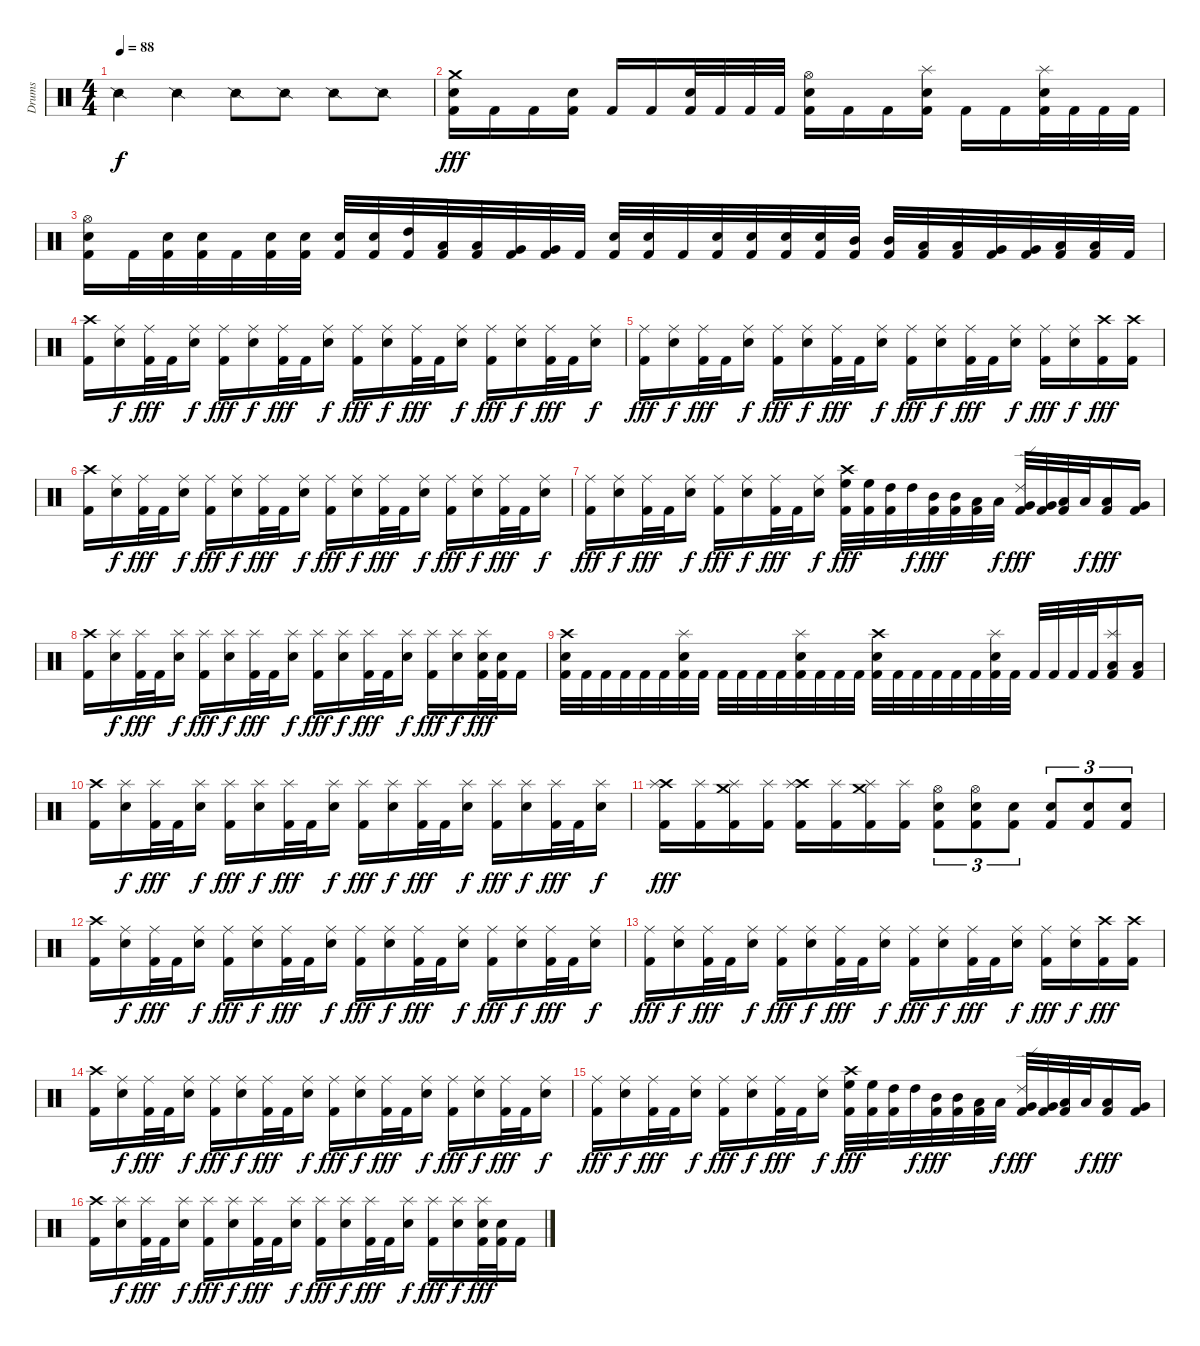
\track ("Drums" "Drums") {instrument percussion}
\staff {score}
\articulation defaults
\ts (4 4)
\tempo 88
\clef neutral
\ks c "Snare (side stick) 2".4{dy f} "Snare (side stick) 2".4 "Snare (side stick) 2".8 "Snare (side stick) 2".8 "Snare (side stick) 2".8 "Snare (side stick) 2".8
|
("Crash medium (hit)" "Snare (hit) 2" "Kick (hit) 2").16{dy fff} "Kick (hit) 2".16 "Kick (hit) 2".16 ("Snare (hit) 2" "Kick (hit) 2").16 "Kick (hit) 2".16 "Kick (hit) 2".16 ("Snare (hit) 2" "Kick (hit) 2").32 "Kick (hit) 2".32 "Kick (hit) 2".32 "Kick (hit) 2".32 ("Hi-Hat (open)" "Snare (hit) 2" "Kick (hit) 2").16 "Kick (hit) 2".16 "Kick (hit) 2".16 ("Splash (hit)" "Snare (hit) 2" "Kick (hit) 2").16 "Kick (hit) 2".16 "Kick (hit) 2".16 ("Splash (hit)" "Snare (hit) 2" "Kick (hit) 2").32 "Kick (hit) 2".32 "Kick (hit) 2".32 "Kick (hit) 2".32 |
("Hi-Hat (open)" "Snare (hit) 2" "Kick (hit) 2").16 "Kick (hit) 2".32 ("Snare (hit) 2" "Kick (hit) 2").32 ("Snare (hit) 2" "Kick (hit) 2").32 "Kick (hit) 2".32 ("Snare (hit) 2" "Kick (hit) 2").32 ("Snare (hit) 2" "Kick (hit) 2").32 ("Snare (hit) 2" "Kick (hit) 2").32 ("Snare (hit) 2" "Kick (hit) 2").32 ("High Tom (hit)" "Kick (hit) 2").32 ("Low Tom (hit)" "Kick (hit) 2").32 ("Low Tom (hit)" "Kick (hit) 2").32 ("Very Low Tom (hit)" "Kick (hit) 2").32 ("Very Low Tom (hit)" "Kick (hit) 2").32 "Kick (hit) 2".32 ("Snare (hit) 2" "Kick (hit) 2").32 ("Snare (hit) 2" "Kick (hit) 2").32 "Kick (hit) 2".32 ("Snare (hit) 2" "Kick (hit) 2").32 ("Snare (hit) 2" "Kick (hit) 2").32 ("Snare (hit) 2" "Kick (hit) 2").32 ("Snare (hit) 2" "Kick (hit) 2").32 ("Mid Tom (hit)" "Kick (hit) 2").32 ("Mid Tom (hit)" "Kick (hit) 2").32 ("Low Tom (hit)" "Kick (hit) 2").32 ("Low Tom (hit)" "Kick (hit) 2").32 ("Very Low Tom (hit)" "Kick (hit) 2").32 ("Very Low Tom (hit)" "Kick (hit) 2").32 ("Low Floor Tom (hit)" "Kick (hit) 2").32 ("Low Floor Tom (hit)" "Kick (hit) 2").32 "Kick (hit) 2".32 |
("Crash high (hit)" "Kick (hit) 2").16 ("Ride (middle)" "Snare (hit) 2").16{dy f} ("Ride (middle)" "Kick (hit) 2").32{dy fff} "Kick (hit) 2".32 ("Ride (middle)" "Snare (hit) 2").16{dy f} ("Ride (middle)" "Kick (hit) 2").16{dy fff} ("Ride (middle)" "Snare (hit) 2").16{dy f} ("Ride (middle)" "Kick (hit) 2").32{dy fff} "Kick (hit) 2".32 ("Ride (middle)" "Snare (hit) 2").16{dy f} ("Ride (middle)" "Kick (hit) 2").16{dy fff} ("Ride (middle)" "Snare (hit) 2").16{dy f} ("Ride (middle)" "Kick (hit) 2").32{dy fff} "Kick (hit) 2".32 ("Ride (middle)" "Snare (hit) 2").16{dy f} ("Ride (middle)" "Kick (hit) 2").16{dy fff} ("Ride (middle)" "Snare (hit) 2").16{dy f} ("Ride (middle)" "Kick (hit) 2").32{dy fff} "Kick (hit) 2".32 ("Ride (middle)" "Snare (hit) 2").16{dy f} |
("Ride (middle)" "Kick (hit) 2").16{dy fff} ("Ride (middle)" "Snare (hit) 2").16{dy f} ("Ride (middle)" "Kick (hit) 2").32{dy fff} "Kick (hit) 2".32 ("Ride (middle)" "Snare (hit) 2").16{dy f} ("Ride (middle)" "Kick (hit) 2").16{dy fff} ("Ride (middle)" "Snare (hit) 2").16{dy f} ("Ride (middle)" "Kick (hit) 2").32{dy fff} "Kick (hit) 2".32 ("Ride (middle)" "Snare (hit) 2").16{dy f} ("Ride (middle)" "Kick (hit) 2").16{dy fff} ("Ride (middle)" "Snare (hit) 2").16{dy f} ("Ride (middle)" "Kick (hit) 2").32{dy fff} "Kick (hit) 2".32 ("Ride (middle)" "Snare (hit) 2").16{dy f} ("Ride (middle)" "Kick (hit) 2").16{dy fff} ("Ride (middle)" "Snare (hit) 2").16{dy f} ("Crash high (hit)" "Kick (hit) 2").16{dy fff} ("Crash high (hit)" "Kick (hit) 2").16 |
("Crash high (hit)" "Kick (hit) 2").16 ("Ride (middle)" "Snare (hit) 2").16{dy f} ("Ride (middle)" "Kick (hit) 2").32{dy fff} "Kick (hit) 2".32 ("Ride (middle)" "Snare (hit) 2").16{dy f} ("Ride (middle)" "Kick (hit) 2").16{dy fff} ("Ride (middle)" "Snare (hit) 2").16{dy f} ("Ride (middle)" "Kick (hit) 2").32{dy fff} "Kick (hit) 2".32 ("Ride (middle)" "Snare (hit) 2").16{dy f} ("Ride (middle)" "Kick (hit) 2").16{dy fff} ("Ride (middle)" "Snare (hit) 2").16{dy f} ("Ride (middle)" "Kick (hit) 2").32{dy fff} "Kick (hit) 2".32 ("Ride (middle)" "Snare (hit) 2").16{dy f} ("Ride (middle)" "Kick (hit) 2").16{dy fff} ("Ride (middle)" "Snare (hit) 2").16{dy f} ("Ride (middle)" "Kick (hit) 2").32{dy fff} "Kick (hit) 2".32 ("Ride (middle)" "Snare (hit) 2").16{dy f} |
("Ride (middle)" "Kick (hit) 2").16{dy fff} ("Ride (middle)" "Snare (hit) 2").16{dy f} ("Ride (middle)" "Kick (hit) 2").32{dy fff} "Kick (hit) 2".32 ("Ride (middle)" "Snare (hit) 2").16{dy f} ("Ride (middle)" "Kick (hit) 2").16{dy fff} ("Ride (middle)" "Snare (hit) 2").16{dy f} ("Ride (middle)" "Kick (hit) 2").32{dy fff} "Kick (hit) 2".32 ("Ride (middle)" "Snare (hit) 2").16{dy f} ("Crash high (hit)" "High Floor Tom (hit)" "Kick (hit) 2").32{dy fff} ("High Floor Tom (hit)" "Kick (hit) 2").32 ("High Tom (hit)" "Kick (hit) 2").32 "High Tom (hit)".32{dy f} ("Mid Tom (hit)" "Kick (hit) 2").32{dy fff} ("Mid Tom (hit)" "Kick (hit) 2").32 ("Low Tom (hit)" "Kick (hit) 2").32 "Low Tom (hit)".32{dy f} ("Ride (edge) 2" "Very Low Tom (hit)" "Kick (hit) 2").32{dy fff} ("Very Low Tom (hit)" "Kick (hit) 2").32 ("Low Floor Tom (hit)" "Kick (hit) 2").32 "Low Floor Tom (hit)".32{dy f} ("Low Tom (hit)" "Kick (hit) 2").16{dy fff} ("Very Low Tom (hit)" "Kick (hit) 2").16 |
("Crash high (hit)" "Kick (hit) 2").16 ("Splash (hit)" "Snare (hit) 2").16{dy f} ("Splash (hit)" "Kick (hit) 2").32{dy fff} "Kick (hit) 2".32 ("Splash (hit)" "Snare (hit) 2").16{dy f} ("Splash (hit)" "Kick (hit) 2").16{dy fff} ("Splash (hit)" "Snare (hit) 2").16{dy f} ("Splash (hit)" "Kick (hit) 2").32{dy fff} "Kick (hit) 2".32 ("Splash (hit)" "Snare (hit) 2").16{dy f} ("Splash (hit)" "Kick (hit) 2").16{dy fff} ("Splash (hit)" "Snare (hit) 2").16{dy f} ("Splash (hit)" "Kick (hit) 2").32{dy fff} "Kick (hit) 2".32 ("Splash (hit)" "Snare (hit) 2").16{dy f} ("Splash (hit)" "Kick (hit) 2").16{dy fff} ("Splash (hit)" "Snare (hit) 2").16{dy f} ("Splash (hit)" "Snare (hit) 2" "Kick (hit) 2").32{dy fff} ("Snare (hit) 2" "Kick (hit) 2").32 "Kick (hit) 2".16 |
("Crash high (hit)" "Snare (hit) 2" "Kick (hit) 2").32 "Kick (hit) 2".32 "Kick (hit) 2".32 "Kick (hit) 2".32 "Kick (hit) 2".32 "Kick (hit) 2".32 ("Splash (hit)" "Snare (hit) 2" "Kick (hit) 2").32 "Kick (hit) 2".32 "Kick (hit) 2".32 "Kick (hit) 2".32 "Kick (hit) 2".32 "Kick (hit) 2".32 ("Splash (hit)" "Snare (hit) 2" "Kick (hit) 2").32 "Kick (hit) 2".32 "Kick (hit) 2".32 "Kick (hit) 2".32 ("Crash high (hit)" "Snare (hit) 2" "Kick (hit) 2").32 "Kick (hit) 2".32 "Kick (hit) 2".32 "Kick (hit) 2".32 "Kick (hit) 2".32 "Kick (hit) 2".32 ("Splash (hit)" "Snare (hit) 2" "Kick (hit) 2").32 "Kick (hit) 2".32 "Kick (hit) 2".32 "Kick (hit) 2".32 "Kick (hit) 2".32 "Kick (hit) 2".32 ("Splash (hit)" "Low Tom (hit)" "Kick (hit) 2").16 ("Low Tom (hit)" "Kick (hit) 2").16 |
("Crash high (hit)" "Kick (hit) 2").16 ("Splash (hit)" "Snare (hit) 2").16{dy f} ("Splash (hit)" "Kick (hit) 2").32{dy fff} "Kick (hit) 2".32 ("Splash (hit)" "Snare (hit) 2").16{dy f} ("Splash (hit)" "Kick (hit) 2").16{dy fff} ("Splash (hit)" "Snare (hit) 2").16{dy f} ("Splash (hit)" "Kick (hit) 2").32{dy fff} "Kick (hit) 2".32 ("Splash (hit)" "Snare (hit) 2").16{dy f} ("Splash (hit)" "Kick (hit) 2").16{dy fff} ("Splash (hit)" "Snare (hit) 2").16{dy f} ("Splash (hit)" "Kick (hit) 2").32{dy fff} "Kick (hit) 2".32 ("Splash (hit)" "Snare (hit) 2").16{dy f} ("Splash (hit)" "Kick (hit) 2").16{dy fff} ("Splash (hit)" "Snare (hit) 2").16{dy f} ("Splash (hit)" "Kick (hit) 2").32{dy fff} "Kick (hit) 2".32 ("Splash (hit)" "Snare (hit) 2").16{dy f} |
("Crash high (hit)" "Splash (hit)" "Kick (hit) 2").16{dy fff} ("Splash (hit)" "Kick (hit) 2").16 ("Crash medium (hit)" "Splash (hit)" "Kick (hit) 2").16 ("Splash (hit)" "Kick (hit) 2").16 ("Crash high (hit)" "Splash (hit)" "Kick (hit) 2").16 ("Splash (hit)" "Kick (hit) 2").16 ("Crash medium (hit)" "Splash (hit)" "Kick (hit) 2").16 ("Splash (hit)" "Kick (hit) 2").16 ("Hi-Hat (open)" "Snare (hit) 2" "Kick (hit) 2").8{tu (3 2)} ("Hi-Hat (open)" "Snare (hit) 2" "Kick (hit) 2").8{tu (3 2)} ("Snare (hit) 2" "Kick (hit) 2").8{tu (3 2)} ("Snare (hit) 2" "Kick (hit) 2").8{tu (3 2)} ("Snare (hit) 2" "Kick (hit) 2").8{tu (3 2)} ("Snare (hit) 2" "Kick (hit) 2").8{tu (3 2)} |
("Crash high (hit)" "Kick (hit) 2").16 ("Ride (middle)" "Snare (hit) 2").16{dy f} ("Ride (middle)" "Kick (hit) 2").32{dy fff} "Kick (hit) 2".32 ("Ride (middle)" "Snare (hit) 2").16{dy f} ("Ride (middle)" "Kick (hit) 2").16{dy fff} ("Ride (middle)" "Snare (hit) 2").16{dy f} ("Ride (middle)" "Kick (hit) 2").32{dy fff} "Kick (hit) 2".32 ("Ride (middle)" "Snare (hit) 2").16{dy f} ("Ride (middle)" "Kick (hit) 2").16{dy fff} ("Ride (middle)" "Snare (hit) 2").16{dy f} ("Ride (middle)" "Kick (hit) 2").32{dy fff} "Kick (hit) 2".32 ("Ride (middle)" "Snare (hit) 2").16{dy f} ("Ride (middle)" "Kick (hit) 2").16{dy fff} ("Ride (middle)" "Snare (hit) 2").16{dy f} ("Ride (middle)" "Kick (hit) 2").32{dy fff} "Kick (hit) 2".32 ("Ride (middle)" "Snare (hit) 2").16{dy f} |
("Ride (middle)" "Kick (hit) 2").16{dy fff} ("Ride (middle)" "Snare (hit) 2").16{dy f} ("Ride (middle)" "Kick (hit) 2").32{dy fff} "Kick (hit) 2".32 ("Ride (middle)" "Snare (hit) 2").16{dy f} ("Ride (middle)" "Kick (hit) 2").16{dy fff} ("Ride (middle)" "Snare (hit) 2").16{dy f} ("Ride (middle)" "Kick (hit) 2").32{dy fff} "Kick (hit) 2".32 ("Ride (middle)" "Snare (hit) 2").16{dy f} ("Ride (middle)" "Kick (hit) 2").16{dy fff} ("Ride (middle)" "Snare (hit) 2").16{dy f} ("Ride (middle)" "Kick (hit) 2").32{dy fff} "Kick (hit) 2".32 ("Ride (middle)" "Snare (hit) 2").16{dy f} ("Ride (middle)" "Kick (hit) 2").16{dy fff} ("Ride (middle)" "Snare (hit) 2").16{dy f} ("Crash high (hit)" "Kick (hit) 2").16{dy fff} ("Crash high (hit)" "Kick (hit) 2").16 |
("Crash high (hit)" "Kick (hit) 2").16 ("Ride (middle)" "Snare (hit) 2").16{dy f} ("Ride (middle)" "Kick (hit) 2").32{dy fff} "Kick (hit) 2".32 ("Ride (middle)" "Snare (hit) 2").16{dy f} ("Ride (middle)" "Kick (hit) 2").16{dy fff} ("Ride (middle)" "Snare (hit) 2").16{dy f} ("Ride (middle)" "Kick (hit) 2").32{dy fff} "Kick (hit) 2".32 ("Ride (middle)" "Snare (hit) 2").16{dy f} ("Ride (middle)" "Kick (hit) 2").16{dy fff} ("Ride (middle)" "Snare (hit) 2").16{dy f} ("Ride (middle)" "Kick (hit) 2").32{dy fff} "Kick (hit) 2".32 ("Ride (middle)" "Snare (hit) 2").16{dy f} ("Ride (middle)" "Kick (hit) 2").16{dy fff} ("Ride (middle)" "Snare (hit) 2").16{dy f} ("Ride (middle)" "Kick (hit) 2").32{dy fff} "Kick (hit) 2".32 ("Ride (middle)" "Snare (hit) 2").16{dy f} |
("Ride (middle)" "Kick (hit) 2").16{dy fff} ("Ride (middle)" "Snare (hit) 2").16{dy f} ("Ride (middle)" "Kick (hit) 2").32{dy fff} "Kick (hit) 2".32 ("Ride (middle)" "Snare (hit) 2").16{dy f} ("Ride (middle)" "Kick (hit) 2").16{dy fff} ("Ride (middle)" "Snare (hit) 2").16{dy f} ("Ride (middle)" "Kick (hit) 2").32{dy fff} "Kick (hit) 2".32 ("Ride (middle)" "Snare (hit) 2").16{dy f} ("Crash high (hit)" "High Floor Tom (hit)" "Kick (hit) 2").32{dy fff} ("High Floor Tom (hit)" "Kick (hit) 2").32 ("High Tom (hit)" "Kick (hit) 2").32 "High Tom (hit)".32{dy f} ("Mid Tom (hit)" "Kick (hit) 2").32{dy fff} ("Mid Tom (hit)" "Kick (hit) 2").32 ("Low Tom (hit)" "Kick (hit) 2").32 "Low Tom (hit)".32{dy f} ("Ride (edge) 2" "Very Low Tom (hit)" "Kick (hit) 2").32{dy fff} ("Very Low Tom (hit)" "Kick (hit) 2").32 ("Low Floor Tom (hit)" "Kick (hit) 2").32 "Low Floor Tom (hit)".32{dy f} ("Low Tom (hit)" "Kick (hit) 2").16{dy fff} ("Very Low Tom (hit)" "Kick (hit) 2").16 |
("Crash high (hit)" "Kick (hit) 2").16 ("Splash (hit)" "Snare (hit) 2").16{dy f} ("Splash (hit)" "Kick (hit) 2").32{dy fff} "Kick (hit) 2".32 ("Splash (hit)" "Snare (hit) 2").16{dy f} ("Splash (hit)" "Kick (hit) 2").16{dy fff} ("Splash (hit)" "Snare (hit) 2").16{dy f} ("Splash (hit)" "Kick (hit) 2").32{dy fff} "Kick (hit) 2".32 ("Splash (hit)" "Snare (hit) 2").16{dy f} ("Splash (hit)" "Kick (hit) 2").16{dy fff} ("Splash (hit)" "Snare (hit) 2").16{dy f} ("Splash (hit)" "Kick (hit) 2").32{dy fff} "Kick (hit) 2".32 ("Splash (hit)" "Snare (hit) 2").16{dy f} ("Splash (hit)" "Kick (hit) 2").16{dy fff} ("Splash (hit)" "Snare (hit) 2").16{dy f} ("Splash (hit)" "Snare (hit) 2" "Kick (hit) 2").32{dy fff} ("Snare (hit) 2" "Kick (hit) 2").32 "Kick (hit) 2".16
